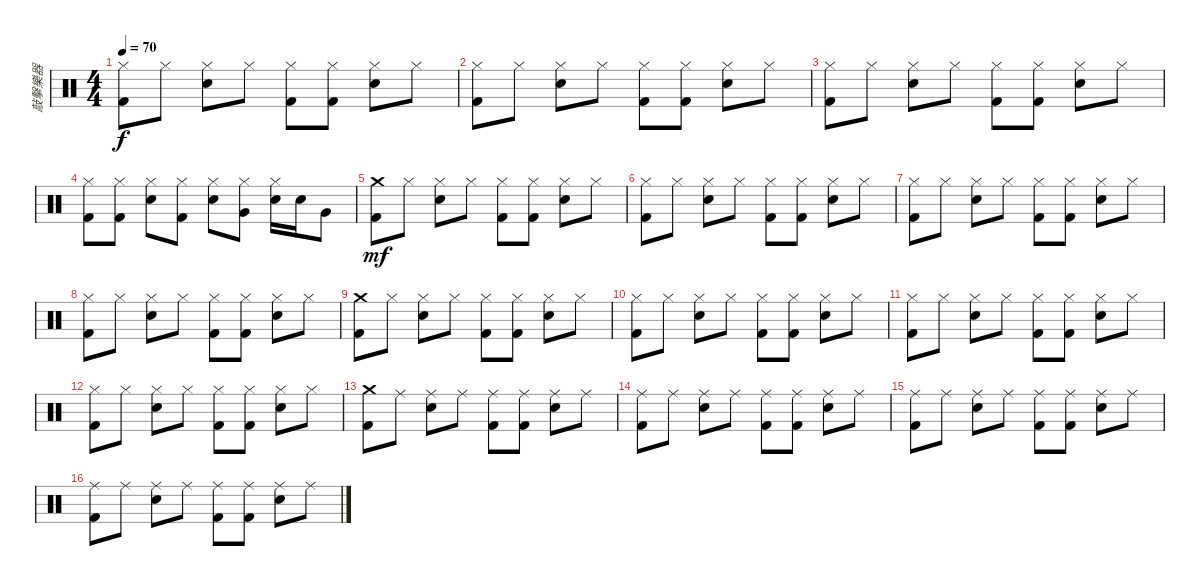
\track ("敲擊樂器" "敲擊樂器") {instrument percussion}
\staff {score}
\articulation defaults
\ts (4 4)
\tempo 70
\clef neutral
\ks c
("Hi-Hat (closed)" "Kick (hit) 2").8{dy f} "Hi-Hat (closed)".8 ("Hi-Hat (closed)" "Snare (hit) 2").8 "Hi-Hat (closed)".8 ("Hi-Hat (closed)" "Kick (hit) 2").8 ("Hi-Hat (closed)" "Kick (hit) 2").8 ("Hi-Hat (closed)" "Snare (hit) 2").8 "Hi-Hat (closed)".8 |
("Hi-Hat (closed)" "Kick (hit) 2").8 "Hi-Hat (closed)".8 ("Hi-Hat (closed)" "Snare (hit) 2").8 "Hi-Hat (closed)".8 ("Hi-Hat (closed)" "Kick (hit) 2").8 ("Hi-Hat (closed)" "Kick (hit) 2").8 ("Hi-Hat (closed)" "Snare (hit) 2").8 "Hi-Hat (closed)".8 |
("Hi-Hat (closed)" "Kick (hit) 2").8 "Hi-Hat (closed)".8 ("Hi-Hat (closed)" "Snare (hit) 2").8 "Hi-Hat (closed)".8 ("Hi-Hat (closed)" "Kick (hit) 2").8 ("Hi-Hat (closed)" "Kick (hit) 2").8 ("Hi-Hat (closed)" "Snare (hit) 2").8 "Hi-Hat (closed)".8 |
("Hi-Hat (closed)" "Kick (hit) 2").8 ("Hi-Hat (closed)" "Kick (hit) 2").8 ("Hi-Hat (closed)" "Snare (hit) 2").8 ("Hi-Hat (closed)" "Kick (hit) 2").8 ("Hi-Hat (closed)" "Snare (hit) 2").8 ("Hi-Hat (closed)" "Very Low Tom (hit)").8 ("Hi-Hat (closed)" "Snare (hit) 2").16 "Snare (hit) 2".16 "Very Low Tom (hit)".8 |
("Crash medium (hit)" "Kick (hit) 2").8{dy mf} "Hi-Hat (closed)".8 ("Hi-Hat (closed)" "Snare (hit) 2").8 "Hi-Hat (closed)".8 ("Hi-Hat (closed)" "Kick (hit) 2").8 ("Hi-Hat (closed)" "Kick (hit) 2").8 ("Hi-Hat (closed)" "Snare (hit) 2").8 "Hi-Hat (closed)".8 |
("Hi-Hat (closed)" "Kick (hit) 2").8 "Hi-Hat (closed)".8 ("Hi-Hat (closed)" "Snare (hit) 2").8 "Hi-Hat (closed)".8 ("Hi-Hat (closed)" "Kick (hit) 2").8 ("Hi-Hat (closed)" "Kick (hit) 2").8 ("Hi-Hat (closed)" "Snare (hit) 2").8 "Hi-Hat (closed)".8 |
("Hi-Hat (closed)" "Kick (hit) 2").8 "Hi-Hat (closed)".8 ("Hi-Hat (closed)" "Snare (hit) 2").8 "Hi-Hat (closed)".8 ("Hi-Hat (closed)" "Kick (hit) 2").8 ("Hi-Hat (closed)" "Kick (hit) 2").8 ("Hi-Hat (closed)" "Snare (hit) 2").8 "Hi-Hat (closed)".8 |
("Hi-Hat (closed)" "Kick (hit) 2").8 "Hi-Hat (closed)".8 ("Hi-Hat (closed)" "Snare (hit) 2").8 "Hi-Hat (closed)".8 ("Hi-Hat (closed)" "Kick (hit) 2").8 ("Hi-Hat (closed)" "Kick (hit) 2").8 ("Hi-Hat (closed)" "Snare (hit) 2").8 "Hi-Hat (closed)".8 |
("Crash medium (hit)" "Kick (hit) 2").8 "Hi-Hat (closed)".8 ("Hi-Hat (closed)" "Snare (hit) 2").8 "Hi-Hat (closed)".8 ("Hi-Hat (closed)" "Kick (hit) 2").8 ("Hi-Hat (closed)" "Kick (hit) 2").8 ("Hi-Hat (closed)" "Snare (hit) 2").8 "Hi-Hat (closed)".8 |
("Hi-Hat (closed)" "Kick (hit) 2").8 "Hi-Hat (closed)".8 ("Hi-Hat (closed)" "Snare (hit) 2").8 "Hi-Hat (closed)".8 ("Hi-Hat (closed)" "Kick (hit) 2").8 ("Hi-Hat (closed)" "Kick (hit) 2").8 ("Hi-Hat (closed)" "Snare (hit) 2").8 "Hi-Hat (closed)".8 |
("Hi-Hat (closed)" "Kick (hit) 2").8 "Hi-Hat (closed)".8 ("Hi-Hat (closed)" "Snare (hit) 2").8 "Hi-Hat (closed)".8 ("Hi-Hat (closed)" "Kick (hit) 2").8 ("Hi-Hat (closed)" "Kick (hit) 2").8 ("Hi-Hat (closed)" "Snare (hit) 2").8 "Hi-Hat (closed)".8 |
("Hi-Hat (closed)" "Kick (hit) 2").8 "Hi-Hat (closed)".8 ("Hi-Hat (closed)" "Snare (hit) 2").8 "Hi-Hat (closed)".8 ("Hi-Hat (closed)" "Kick (hit) 2").8 ("Hi-Hat (closed)" "Kick (hit) 2").8 ("Hi-Hat (closed)" "Snare (hit) 2").8 "Hi-Hat (closed)".8 |
("Crash medium (hit)" "Kick (hit) 2").8 "Ride (middle)".8 ("Ride (middle)" "Snare (hit) 2").8 "Ride (middle)".8 ("Ride (middle)" "Kick (hit) 2").8 ("Ride (middle)" "Kick (hit) 2").8 ("Ride (middle)" "Snare (hit) 2").8 "Ride (middle)".8 |
("Ride (middle)" "Kick (hit) 2").8 "Ride (middle)".8 ("Ride (middle)" "Snare (hit) 2").8 "Ride (middle)".8 ("Ride (middle)" "Kick (hit) 2").8 ("Ride (middle)" "Kick (hit) 2").8 ("Ride (middle)" "Snare (hit) 2").8 "Ride (middle)".8 |
("Ride (middle)" "Kick (hit) 2").8 "Ride (middle)".8 ("Ride (middle)" "Snare (hit) 2").8 "Ride (middle)".8 ("Ride (middle)" "Kick (hit) 2").8 ("Ride (middle)" "Kick (hit) 2").8 ("Ride (middle)" "Snare (hit) 2").8 "Ride (middle)".8 |
("Ride (middle)" "Kick (hit) 2").8 "Ride (middle)".8 ("Ride (middle)" "Snare (hit) 2").8 "Ride (middle)".8 ("Ride (middle)" "Kick (hit) 2").8 ("Ride (middle)" "Kick (hit) 2").8 ("Ride (middle)" "Snare (hit) 2").8 "Ride (middle)".8
